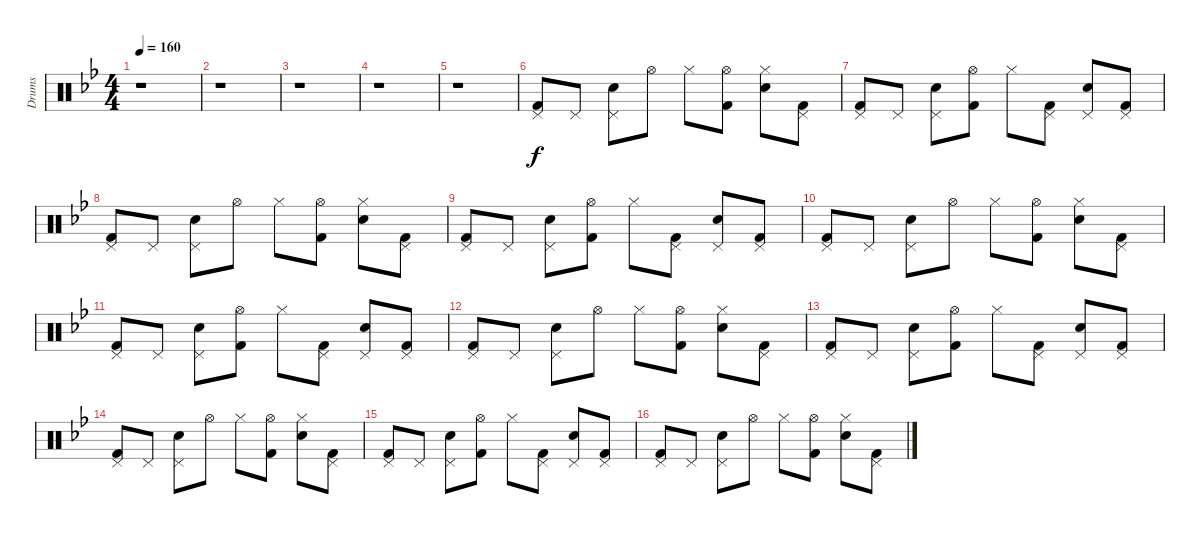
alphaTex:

\track ("Drums" "Drums") {instrument percussion}
\staff {score}
\articulation defaults
\ts (4 4)
\tempo 160
\clef neutral
\ks bb
r.1{dy f} |
r.1 |
r.1 |
r.1 |
r.1{volume 0} |
("Pedal Hi-Hat (hit)" "Kick (hit) 2").8{volume 8} "Pedal Hi-Hat (hit)".8 ("Pedal Hi-Hat (hit)" "Electric Snare (hit)").8 "Hi-Hat (open)".8 "Hi-Hat (closed)".8 ("Hi-Hat (open)" "Kick (hit) 2").8 ("Hi-Hat (closed)" "Electric Snare (hit)").8 ("Pedal Hi-Hat (hit)" "Kick (hit) 2").8 |
("Pedal Hi-Hat (hit)" "Kick (hit) 2").8 "Pedal Hi-Hat (hit)".8 ("Pedal Hi-Hat (hit)" "Electric Snare (hit)").8 ("Hi-Hat (open)" "Kick (hit) 2").8 "Hi-Hat (closed)".8 ("Pedal Hi-Hat (hit)" "Kick (hit) 2").8 ("Pedal Hi-Hat (hit)" "Electric Snare (hit)").8 ("Pedal Hi-Hat (hit)" "Kick (hit) 2").8 |
("Pedal Hi-Hat (hit)" "Kick (hit) 2").8 "Pedal Hi-Hat (hit)".8 ("Pedal Hi-Hat (hit)" "Electric Snare (hit)").8 "Hi-Hat (open)".8 "Hi-Hat (closed)".8 ("Hi-Hat (open)" "Kick (hit) 2").8 ("Hi-Hat (closed)" "Electric Snare (hit)").8 ("Pedal Hi-Hat (hit)" "Kick (hit) 2").8 |
("Pedal Hi-Hat (hit)" "Kick (hit) 2").8 "Pedal Hi-Hat (hit)".8 ("Pedal Hi-Hat (hit)" "Electric Snare (hit)").8 ("Hi-Hat (open)" "Kick (hit) 2").8 "Hi-Hat (closed)".8 ("Pedal Hi-Hat (hit)" "Kick (hit) 2").8 ("Pedal Hi-Hat (hit)" "Electric Snare (hit)").8 ("Pedal Hi-Hat (hit)" "Kick (hit) 2").8 |
("Pedal Hi-Hat (hit)" "Kick (hit) 2").8{volume 13} "Pedal Hi-Hat (hit)".8 ("Pedal Hi-Hat (hit)" "Electric Snare (hit)").8 "Hi-Hat (open)".8 "Hi-Hat (closed)".8 ("Hi-Hat (open)" "Kick (hit) 2").8 ("Hi-Hat (closed)" "Electric Snare (hit)").8 ("Pedal Hi-Hat (hit)" "Kick (hit) 2").8 |
("Pedal Hi-Hat (hit)" "Kick (hit) 2").8 "Pedal Hi-Hat (hit)".8 ("Pedal Hi-Hat (hit)" "Electric Snare (hit)").8 ("Hi-Hat (open)" "Kick (hit) 2").8 "Hi-Hat (closed)".8 ("Pedal Hi-Hat (hit)" "Kick (hit) 2").8 ("Pedal Hi-Hat (hit)" "Electric Snare (hit)").8 ("Pedal Hi-Hat (hit)" "Kick (hit) 2").8 |
("Pedal Hi-Hat (hit)" "Kick (hit) 2").8 "Pedal Hi-Hat (hit)".8 ("Pedal Hi-Hat (hit)" "Electric Snare (hit)").8 "Hi-Hat (open)".8 "Hi-Hat (closed)".8 ("Hi-Hat (open)" "Kick (hit) 2").8 ("Hi-Hat (closed)" "Electric Snare (hit)").8 ("Pedal Hi-Hat (hit)" "Kick (hit) 2").8 |
("Pedal Hi-Hat (hit)" "Kick (hit) 2").8 "Pedal Hi-Hat (hit)".8 ("Pedal Hi-Hat (hit)" "Electric Snare (hit)").8 ("Hi-Hat (open)" "Kick (hit) 2").8 "Hi-Hat (closed)".8 ("Pedal Hi-Hat (hit)" "Kick (hit) 2").8 ("Pedal Hi-Hat (hit)" "Electric Snare (hit)").8 ("Pedal Hi-Hat (hit)" "Kick (hit) 2").8 |
("Pedal Hi-Hat (hit)" "Kick (hit) 2").8 "Pedal Hi-Hat (hit)".8 ("Pedal Hi-Hat (hit)" "Electric Snare (hit)").8 "Hi-Hat (open)".8 "Hi-Hat (closed)".8 ("Hi-Hat (open)" "Kick (hit) 2").8 ("Hi-Hat (closed)" "Electric Snare (hit)").8 ("Pedal Hi-Hat (hit)" "Kick (hit) 2").8 |
("Pedal Hi-Hat (hit)" "Kick (hit) 2").8 "Pedal Hi-Hat (hit)".8 ("Pedal Hi-Hat (hit)" "Electric Snare (hit)").8 ("Hi-Hat (open)" "Kick (hit) 2").8 "Hi-Hat (closed)".8 ("Pedal Hi-Hat (hit)" "Kick (hit) 2").8 ("Pedal Hi-Hat (hit)" "Electric Snare (hit)").8 ("Pedal Hi-Hat (hit)" "Kick (hit) 2").8 |
("Pedal Hi-Hat (hit)" "Kick (hit) 2").8 "Pedal Hi-Hat (hit)".8 ("Pedal Hi-Hat (hit)" "Electric Snare (hit)").8 "Hi-Hat (open)".8 "Hi-Hat (closed)".8 ("Hi-Hat (open)" "Kick (hit) 2").8 ("Hi-Hat (closed)" "Electric Snare (hit)").8 ("Pedal Hi-Hat (hit)" "Kick (hit) 2").8
